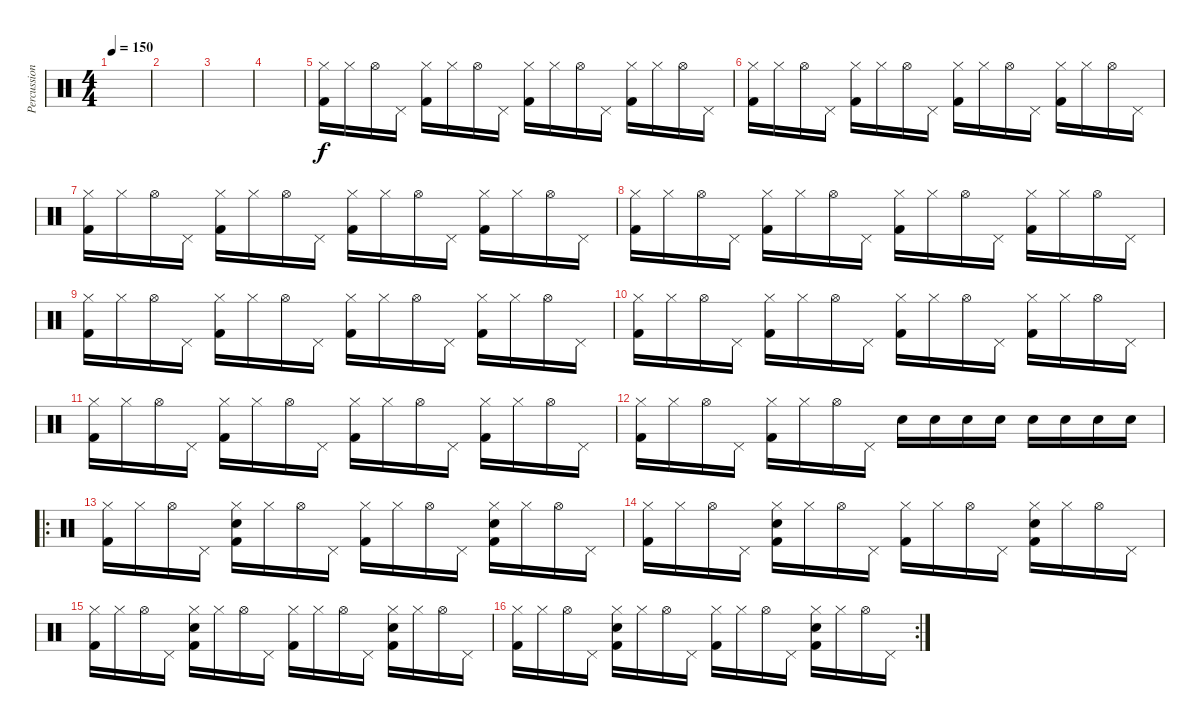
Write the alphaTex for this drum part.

\track ("Percussion" "Percussion") {instrument percussion}
\staff {score}
\articulation defaults
\ts (4 4)
\tempo 150
\clef neutral
\ks c
|
|
|
|
("Hi-Hat (closed)" "Kick (hit) 2").16 "Hi-Hat (closed)".16 "Hi-Hat (open)".16 "Pedal Hi-Hat (hit)".16 ("Hi-Hat (closed)" "Kick (hit) 2").16 "Hi-Hat (closed)".16 "Hi-Hat (open)".16 "Pedal Hi-Hat (hit)".16 ("Hi-Hat (closed)" "Kick (hit) 2").16 "Hi-Hat (closed)".16 "Hi-Hat (open)".16 "Pedal Hi-Hat (hit)".16 ("Hi-Hat (closed)" "Kick (hit) 2").16 "Hi-Hat (closed)".16 "Hi-Hat (open)".16 "Pedal Hi-Hat (hit)".16 |
("Hi-Hat (closed)" "Kick (hit) 2").16 "Hi-Hat (closed)".16 "Hi-Hat (open)".16 "Pedal Hi-Hat (hit)".16 ("Hi-Hat (closed)" "Kick (hit) 2").16 "Hi-Hat (closed)".16 "Hi-Hat (open)".16 "Pedal Hi-Hat (hit)".16 ("Hi-Hat (closed)" "Kick (hit) 2").16 "Hi-Hat (closed)".16 "Hi-Hat (open)".16 "Pedal Hi-Hat (hit)".16 ("Hi-Hat (closed)" "Kick (hit) 2").16 "Hi-Hat (closed)".16 "Hi-Hat (open)".16 "Pedal Hi-Hat (hit)".16 |
("Hi-Hat (closed)" "Kick (hit) 2").16 "Hi-Hat (closed)".16 "Hi-Hat (open)".16 "Pedal Hi-Hat (hit)".16 ("Hi-Hat (closed)" "Kick (hit) 2").16 "Hi-Hat (closed)".16 "Hi-Hat (open)".16 "Pedal Hi-Hat (hit)".16 ("Hi-Hat (closed)" "Kick (hit) 2").16 "Hi-Hat (closed)".16 "Hi-Hat (open)".16 "Pedal Hi-Hat (hit)".16 ("Hi-Hat (closed)" "Kick (hit) 2").16 "Hi-Hat (closed)".16 "Hi-Hat (open)".16 "Pedal Hi-Hat (hit)".16 |
("Hi-Hat (closed)" "Kick (hit) 2").16 "Hi-Hat (closed)".16 "Hi-Hat (open)".16 "Pedal Hi-Hat (hit)".16 ("Hi-Hat (closed)" "Kick (hit) 2").16 "Hi-Hat (closed)".16 "Hi-Hat (open)".16 "Pedal Hi-Hat (hit)".16 ("Hi-Hat (closed)" "Kick (hit) 2").16 "Hi-Hat (closed)".16 "Hi-Hat (open)".16 "Pedal Hi-Hat (hit)".16 ("Hi-Hat (closed)" "Kick (hit) 2").16 "Hi-Hat (closed)".16 "Hi-Hat (open)".16 "Pedal Hi-Hat (hit)".16 |
("Hi-Hat (closed)" "Kick (hit) 2").16 "Hi-Hat (closed)".16 "Hi-Hat (open)".16 "Pedal Hi-Hat (hit)".16 ("Hi-Hat (closed)" "Kick (hit) 2").16 "Hi-Hat (closed)".16 "Hi-Hat (open)".16 "Pedal Hi-Hat (hit)".16 ("Hi-Hat (closed)" "Kick (hit) 2").16 "Hi-Hat (closed)".16 "Hi-Hat (open)".16 "Pedal Hi-Hat (hit)".16 ("Hi-Hat (closed)" "Kick (hit) 2").16 "Hi-Hat (closed)".16 "Hi-Hat (open)".16 "Pedal Hi-Hat (hit)".16 |
("Hi-Hat (closed)" "Kick (hit) 2").16 "Hi-Hat (closed)".16 "Hi-Hat (open)".16 "Pedal Hi-Hat (hit)".16 ("Hi-Hat (closed)" "Kick (hit) 2").16 "Hi-Hat (closed)".16 "Hi-Hat (open)".16 "Pedal Hi-Hat (hit)".16 ("Hi-Hat (closed)" "Kick (hit) 2").16 "Hi-Hat (closed)".16 "Hi-Hat (open)".16 "Pedal Hi-Hat (hit)".16 ("Hi-Hat (closed)" "Kick (hit) 2").16 "Hi-Hat (closed)".16 "Hi-Hat (open)".16 "Pedal Hi-Hat (hit)".16 |
("Hi-Hat (closed)" "Kick (hit) 2").16 "Hi-Hat (closed)".16 "Hi-Hat (open)".16 "Pedal Hi-Hat (hit)".16 ("Hi-Hat (closed)" "Kick (hit) 2").16 "Hi-Hat (closed)".16 "Hi-Hat (open)".16 "Pedal Hi-Hat (hit)".16 ("Hi-Hat (closed)" "Kick (hit) 2").16 "Hi-Hat (closed)".16 "Hi-Hat (open)".16 "Pedal Hi-Hat (hit)".16 ("Hi-Hat (closed)" "Kick (hit) 2").16 "Hi-Hat (closed)".16 "Hi-Hat (open)".16 "Pedal Hi-Hat (hit)".16 |
("Hi-Hat (closed)" "Kick (hit) 2").16 "Hi-Hat (closed)".16 "Hi-Hat (open)".16 "Pedal Hi-Hat (hit)".16 ("Hi-Hat (closed)" "Kick (hit) 2").16 "Hi-Hat (closed)".16 "Hi-Hat (open)".16 "Pedal Hi-Hat (hit)".16 "Snare (hit) 2".16{volume 3} "Snare (hit) 2".16{volume 13} "Snare (hit) 2".16 "Snare (hit) 2".16 "Snare (hit) 2".16 "Snare (hit) 2".16 "Snare (hit) 2".16 "Snare (hit) 2".16 |
\ro
("Hi-Hat (closed)" "Kick (hit) 2").16 "Hi-Hat (closed)".16 "Hi-Hat (open)".16 "Pedal Hi-Hat (hit)".16 ("Hi-Hat (closed)" "Snare (hit) 2" "Kick (hit) 2").16 "Hi-Hat (closed)".16 "Hi-Hat (open)".16 "Pedal Hi-Hat (hit)".16 ("Hi-Hat (closed)" "Kick (hit) 2").16 "Hi-Hat (closed)".16 "Hi-Hat (open)".16 "Pedal Hi-Hat (hit)".16 ("Hi-Hat (closed)" "Snare (hit) 2" "Kick (hit) 2").16 "Hi-Hat (closed)".16 "Hi-Hat (open)".16 "Pedal Hi-Hat (hit)".16 |
("Hi-Hat (closed)" "Kick (hit) 2").16 "Hi-Hat (closed)".16 "Hi-Hat (open)".16 "Pedal Hi-Hat (hit)".16 ("Hi-Hat (closed)" "Snare (hit) 2" "Kick (hit) 2").16 "Hi-Hat (closed)".16 "Hi-Hat (open)".16 "Pedal Hi-Hat (hit)".16 ("Hi-Hat (closed)" "Kick (hit) 2").16 "Hi-Hat (closed)".16 "Hi-Hat (open)".16 "Pedal Hi-Hat (hit)".16 ("Hi-Hat (closed)" "Snare (hit) 2" "Kick (hit) 2").16 "Hi-Hat (closed)".16 "Hi-Hat (open)".16 "Pedal Hi-Hat (hit)".16 |
("Hi-Hat (closed)" "Kick (hit) 2").16 "Hi-Hat (closed)".16 "Hi-Hat (open)".16 "Pedal Hi-Hat (hit)".16 ("Hi-Hat (closed)" "Snare (hit) 2" "Kick (hit) 2").16 "Hi-Hat (closed)".16 "Hi-Hat (open)".16 "Pedal Hi-Hat (hit)".16 ("Hi-Hat (closed)" "Kick (hit) 2").16 "Hi-Hat (closed)".16 "Hi-Hat (open)".16 "Pedal Hi-Hat (hit)".16 ("Hi-Hat (closed)" "Snare (hit) 2" "Kick (hit) 2").16 "Hi-Hat (closed)".16 "Hi-Hat (open)".16 "Pedal Hi-Hat (hit)".16 |
\rc 2
("Hi-Hat (closed)" "Kick (hit) 2").16 "Hi-Hat (closed)".16 "Hi-Hat (open)".16 "Pedal Hi-Hat (hit)".16 ("Hi-Hat (closed)" "Snare (hit) 2" "Kick (hit) 2").16 "Hi-Hat (closed)".16 "Hi-Hat (open)".16 "Pedal Hi-Hat (hit)".16 ("Hi-Hat (closed)" "Kick (hit) 2").16 "Hi-Hat (closed)".16 "Hi-Hat (open)".16 "Pedal Hi-Hat (hit)".16 ("Hi-Hat (closed)" "Snare (hit) 2" "Kick (hit) 2").16 "Hi-Hat (closed)".16 "Hi-Hat (open)".16 "Pedal Hi-Hat (hit)".16
